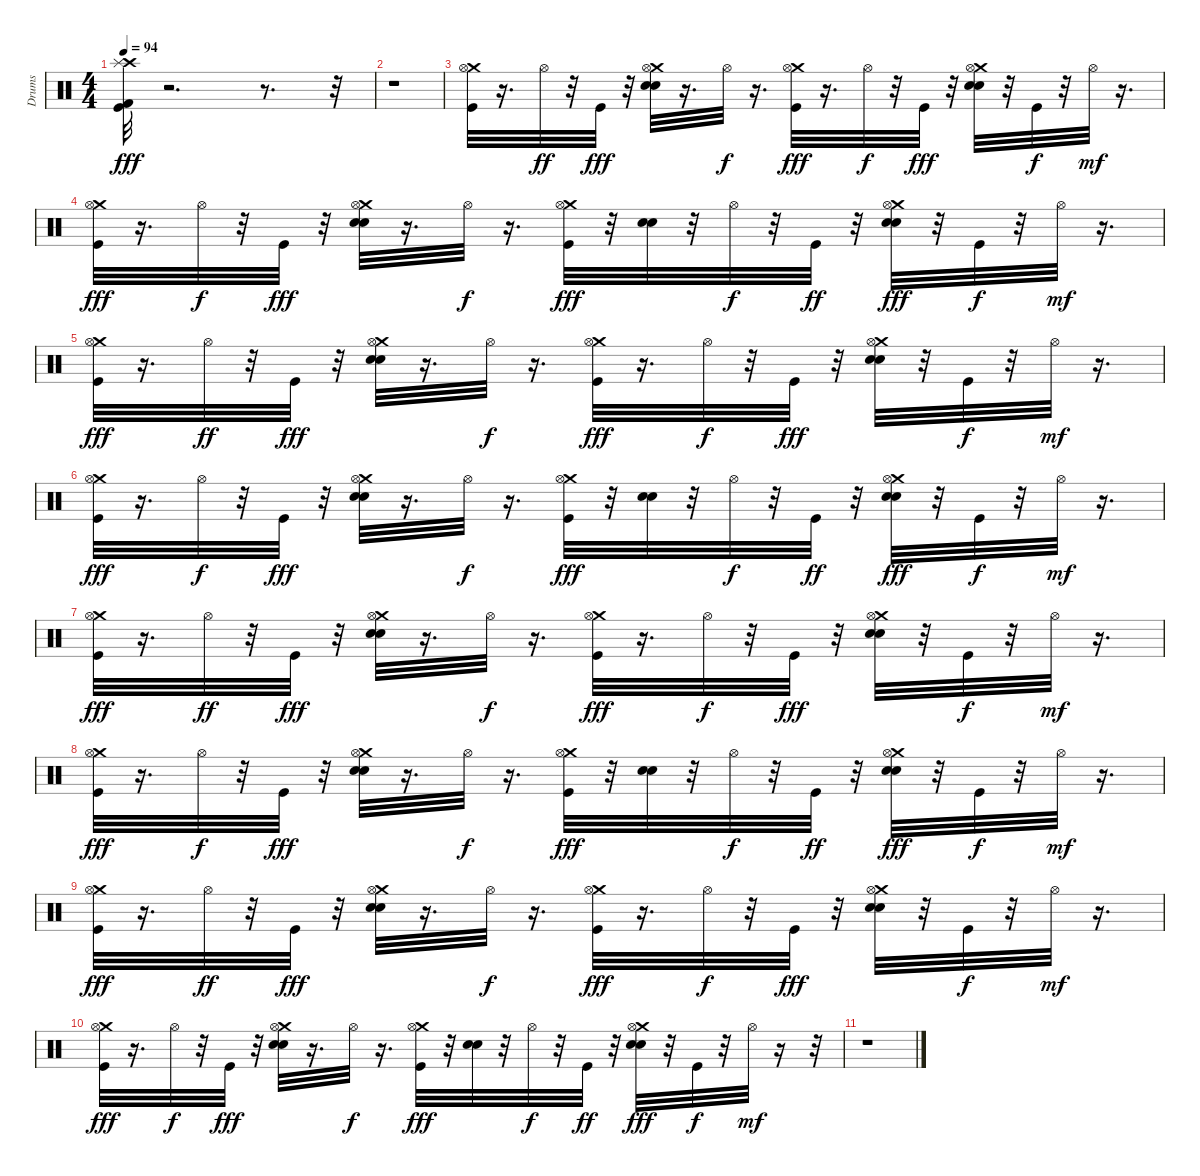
\track ("Drums" "Drums") {instrument percussion}
\staff {score}
\articulation defaults
\ts (4 4)
\tempo 94
\clef neutral
\ks c
("Kick (hit) 2" "Crash high (hit)" "Kick (hit)" "Splash (hit)").32{dy fff} r.2{d} r.8{d} r.32 |
r.1 |
("Crash medium (hit)" "Hi-Hat (open)" "Kick (hit)").32 r.16{d} "Hi-Hat (open)".32{dy ff} r.32 "Kick (hit)".32{dy fff} r.32 ("Crash medium (hit)" "Hi-Hat (open)" "Snare (hit) 2" "Electric Snare (hit)").32 r.16{d} "Hi-Hat (open)".32{dy f} r.16{d} ("Crash medium (hit)" "Hi-Hat (open)" "Kick (hit)").32{dy fff} r.16{d} "Hi-Hat (open)".32{dy f} r.32 "Kick (hit)".32{dy fff} r.32 ("Crash medium (hit)" "Hi-Hat (open)" "Snare (hit) 2" "Electric Snare (hit)").32 r.32 "Kick (hit)".32{dy f} r.32 "Hi-Hat (open)".32{dy mf} r.16{d} |
("Crash medium (hit)" "Hi-Hat (open)" "Kick (hit)").32{dy fff} r.16{d} "Hi-Hat (open)".32{dy f} r.32 "Kick (hit)".32{dy fff} r.32 ("Crash medium (hit)" "Hi-Hat (open)" "Snare (hit) 2" "Electric Snare (hit)").32 r.16{d} "Hi-Hat (open)".32{dy f} r.16{d} ("Crash medium (hit)" "Hi-Hat (open)" "Kick (hit)").32{dy fff} r.32 ("Snare (hit) 2" "Electric Snare (hit)").32 r.32 "Hi-Hat (open)".32{dy f} r.32 "Kick (hit)".32{dy ff} r.32 ("Crash medium (hit)" "Hi-Hat (open)" "Snare (hit) 2" "Electric Snare (hit)").32{dy fff} r.32 "Kick (hit)".32{dy f} r.32 "Hi-Hat (open)".32{dy mf} r.16{d} |
("Crash medium (hit)" "Hi-Hat (open)" "Kick (hit)").32{dy fff} r.16{d} "Hi-Hat (open)".32{dy ff} r.32 "Kick (hit)".32{dy fff} r.32 ("Crash medium (hit)" "Hi-Hat (open)" "Snare (hit) 2" "Electric Snare (hit)").32 r.16{d} "Hi-Hat (open)".32{dy f} r.16{d} ("Crash medium (hit)" "Hi-Hat (open)" "Kick (hit)").32{dy fff} r.16{d} "Hi-Hat (open)".32{dy f} r.32 "Kick (hit)".32{dy fff} r.32 ("Crash medium (hit)" "Hi-Hat (open)" "Snare (hit) 2" "Electric Snare (hit)").32 r.32 "Kick (hit)".32{dy f} r.32 "Hi-Hat (open)".32{dy mf} r.16{d} |
("Crash medium (hit)" "Hi-Hat (open)" "Kick (hit)").32{dy fff} r.16{d} "Hi-Hat (open)".32{dy f} r.32 "Kick (hit)".32{dy fff} r.32 ("Crash medium (hit)" "Hi-Hat (open)" "Snare (hit) 2" "Electric Snare (hit)").32 r.16{d} "Hi-Hat (open)".32{dy f} r.16{d} ("Crash medium (hit)" "Hi-Hat (open)" "Kick (hit)").32{dy fff} r.32 ("Snare (hit) 2" "Electric Snare (hit)").32 r.32 "Hi-Hat (open)".32{dy f} r.32 "Kick (hit)".32{dy ff} r.32 ("Crash medium (hit)" "Hi-Hat (open)" "Snare (hit) 2" "Electric Snare (hit)").32{dy fff} r.32 "Kick (hit)".32{dy f} r.32 "Hi-Hat (open)".32{dy mf} r.16{d} |
("Crash medium (hit)" "Hi-Hat (open)" "Kick (hit)").32{dy fff} r.16{d} "Hi-Hat (open)".32{dy ff} r.32 "Kick (hit)".32{dy fff} r.32 ("Crash medium (hit)" "Hi-Hat (open)" "Snare (hit) 2" "Electric Snare (hit)").32 r.16{d} "Hi-Hat (open)".32{dy f} r.16{d} ("Crash medium (hit)" "Hi-Hat (open)" "Kick (hit)").32{dy fff} r.16{d} "Hi-Hat (open)".32{dy f} r.32 "Kick (hit)".32{dy fff} r.32 ("Crash medium (hit)" "Hi-Hat (open)" "Snare (hit) 2" "Electric Snare (hit)").32 r.32 "Kick (hit)".32{dy f} r.32 "Hi-Hat (open)".32{dy mf} r.16{d} |
("Crash medium (hit)" "Hi-Hat (open)" "Kick (hit)").32{dy fff} r.16{d} "Hi-Hat (open)".32{dy f} r.32 "Kick (hit)".32{dy fff} r.32 ("Crash medium (hit)" "Hi-Hat (open)" "Snare (hit) 2" "Electric Snare (hit)").32 r.16{d} "Hi-Hat (open)".32{dy f} r.16{d} ("Crash medium (hit)" "Hi-Hat (open)" "Kick (hit)").32{dy fff} r.32 ("Snare (hit) 2" "Electric Snare (hit)").32 r.32 "Hi-Hat (open)".32{dy f} r.32 "Kick (hit)".32{dy ff} r.32 ("Crash medium (hit)" "Hi-Hat (open)" "Snare (hit) 2" "Electric Snare (hit)").32{dy fff} r.32 "Kick (hit)".32{dy f} r.32 "Hi-Hat (open)".32{dy mf} r.16{d} |
("Crash medium (hit)" "Hi-Hat (open)" "Kick (hit)").32{dy fff} r.16{d} "Hi-Hat (open)".32{dy ff} r.32 "Kick (hit)".32{dy fff} r.32 ("Crash medium (hit)" "Hi-Hat (open)" "Snare (hit) 2" "Electric Snare (hit)").32 r.16{d} "Hi-Hat (open)".32{dy f} r.16{d} ("Crash medium (hit)" "Hi-Hat (open)" "Kick (hit)").32{dy fff} r.16{d} "Hi-Hat (open)".32{dy f} r.32 "Kick (hit)".32{dy fff} r.32 ("Crash medium (hit)" "Hi-Hat (open)" "Snare (hit) 2" "Electric Snare (hit)").32 r.32 "Kick (hit)".32{dy f} r.32 "Hi-Hat (open)".32{dy mf} r.16{d} |
("Crash medium (hit)" "Hi-Hat (open)" "Kick (hit)").32{dy fff} r.16{d} "Hi-Hat (open)".32{dy f} r.32 "Kick (hit)".32{dy fff} r.32 ("Crash medium (hit)" "Hi-Hat (open)" "Snare (hit) 2" "Electric Snare (hit)").32 r.16{d} "Hi-Hat (open)".32{dy f} r.16{d} ("Crash medium (hit)" "Hi-Hat (open)" "Kick (hit)").32{dy fff} r.32 ("Snare (hit) 2" "Electric Snare (hit)").32 r.32 "Hi-Hat (open)".32{dy f} r.32 "Kick (hit)".32{dy ff} r.32 ("Crash medium (hit)" "Hi-Hat (open)" "Snare (hit) 2" "Electric Snare (hit)").32{dy fff} r.32 "Kick (hit)".32{dy f} r.32 "Hi-Hat (open)".32{dy mf} r.16 r.32 |
r.1
